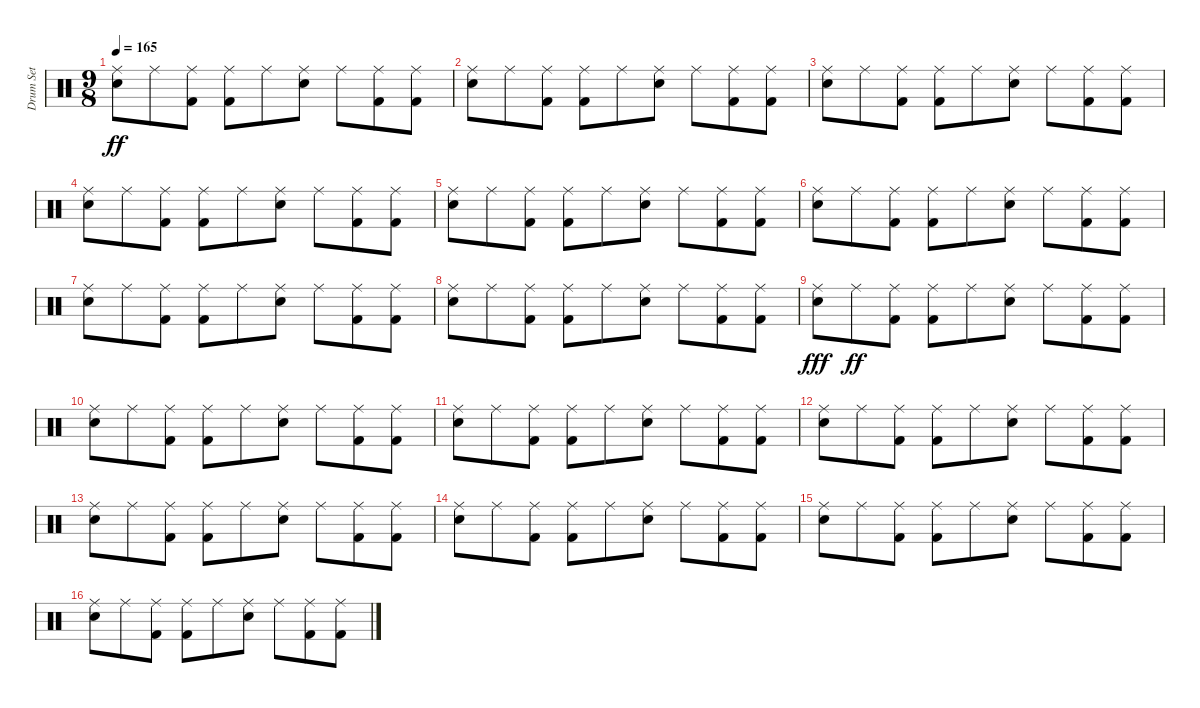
\track ("Drum Set" "Drum Set") {instrument percussion}
\staff {score}
\articulation defaults
\ts (9 8)
\tempo 165
\clef neutral
\ks c
("Snare (hit) 2" "Ride (middle)").8{dy ff} "Ride (middle)".8 ("Kick (hit) 2" "Ride (middle)").8 ("Kick (hit) 2" "Ride (middle)").8 "Ride (middle)".8 ("Snare (hit) 2" "Ride (middle)").8 "Ride (middle)".8 ("Kick (hit) 2" "Ride (middle)").8 ("Kick (hit) 2" "Ride (middle)").8 |
("Snare (hit) 2" "Ride (middle)").8 "Ride (middle)".8 ("Kick (hit) 2" "Ride (middle)").8 ("Kick (hit) 2" "Ride (middle)").8 "Ride (middle)".8 ("Snare (hit) 2" "Ride (middle)").8 "Ride (middle)".8 ("Kick (hit) 2" "Ride (middle)").8 ("Kick (hit) 2" "Ride (middle)").8 |
("Snare (hit) 2" "Ride (middle)").8 "Ride (middle)".8 ("Kick (hit) 2" "Ride (middle)").8 ("Kick (hit) 2" "Ride (middle)").8 "Ride (middle)".8 ("Snare (hit) 2" "Ride (middle)").8 "Ride (middle)".8 ("Kick (hit) 2" "Ride (middle)").8 ("Kick (hit) 2" "Ride (middle)").8 |
("Snare (hit) 2" "Ride (middle)").8 "Ride (middle)".8 ("Kick (hit) 2" "Ride (middle)").8 ("Kick (hit) 2" "Ride (middle)").8 "Ride (middle)".8 ("Snare (hit) 2" "Ride (middle)").8 "Ride (middle)".8 ("Kick (hit) 2" "Ride (middle)").8 ("Kick (hit) 2" "Ride (middle)").8 |
("Snare (hit) 2" "Ride (middle)").8 "Ride (middle)".8 ("Kick (hit) 2" "Ride (middle)").8 ("Kick (hit) 2" "Ride (middle)").8 "Ride (middle)".8 ("Snare (hit) 2" "Ride (middle)").8 "Ride (middle)".8 ("Kick (hit) 2" "Ride (middle)").8 ("Kick (hit) 2" "Ride (middle)").8 |
("Snare (hit) 2" "Ride (middle)").8 "Ride (middle)".8 ("Kick (hit) 2" "Ride (middle)").8 ("Kick (hit) 2" "Ride (middle)").8 "Ride (middle)".8 ("Snare (hit) 2" "Ride (middle)").8 "Ride (middle)".8 ("Kick (hit) 2" "Ride (middle)").8 ("Kick (hit) 2" "Ride (middle)").8 |
("Snare (hit) 2" "Ride (middle)").8 "Ride (middle)".8 ("Kick (hit) 2" "Ride (middle)").8 ("Kick (hit) 2" "Ride (middle)").8 "Ride (middle)".8 ("Snare (hit) 2" "Ride (middle)").8 "Ride (middle)".8 ("Kick (hit) 2" "Ride (middle)").8 ("Kick (hit) 2" "Ride (middle)").8 |
("Snare (hit) 2" "Ride (middle)").8 "Ride (middle)".8 ("Kick (hit) 2" "Ride (middle)").8 ("Kick (hit) 2" "Ride (middle)").8 "Ride (middle)".8 ("Snare (hit) 2" "Ride (middle)").8 "Ride (middle)".8 ("Kick (hit) 2" "Ride (middle)").8 ("Kick (hit) 2" "Ride (middle)").8 |
("Snare (hit) 2" "Ride (middle)").8{dy fff} "Ride (middle)".8{dy ff} ("Kick (hit) 2" "Ride (middle)").8 ("Kick (hit) 2" "Ride (middle)").8 "Ride (middle)".8 ("Snare (hit) 2" "Ride (middle)").8 "Ride (middle)".8 ("Kick (hit) 2" "Ride (middle)").8 ("Kick (hit) 2" "Ride (middle)").8 |
("Snare (hit) 2" "Ride (middle)").8 "Ride (middle)".8 ("Kick (hit) 2" "Ride (middle)").8 ("Kick (hit) 2" "Ride (middle)").8 "Ride (middle)".8 ("Snare (hit) 2" "Ride (middle)").8 "Ride (middle)".8 ("Kick (hit) 2" "Ride (middle)").8 ("Kick (hit) 2" "Ride (middle)").8 |
("Snare (hit) 2" "Ride (middle)").8 "Ride (middle)".8 ("Kick (hit) 2" "Ride (middle)").8 ("Kick (hit) 2" "Ride (middle)").8 "Ride (middle)".8 ("Snare (hit) 2" "Ride (middle)").8 "Ride (middle)".8 ("Kick (hit) 2" "Ride (middle)").8 ("Kick (hit) 2" "Ride (middle)").8 |
("Snare (hit) 2" "Ride (middle)").8 "Ride (middle)".8 ("Kick (hit) 2" "Ride (middle)").8 ("Kick (hit) 2" "Ride (middle)").8 "Ride (middle)".8 ("Snare (hit) 2" "Ride (middle)").8 "Ride (middle)".8 ("Kick (hit) 2" "Ride (middle)").8 ("Kick (hit) 2" "Ride (middle)").8 |
("Snare (hit) 2" "Ride (middle)").8 "Ride (middle)".8 ("Kick (hit) 2" "Ride (middle)").8 ("Kick (hit) 2" "Ride (middle)").8 "Ride (middle)".8 ("Snare (hit) 2" "Ride (middle)").8 "Ride (middle)".8 ("Kick (hit) 2" "Ride (middle)").8 ("Kick (hit) 2" "Ride (middle)").8 |
("Snare (hit) 2" "Ride (middle)").8 "Ride (middle)".8 ("Kick (hit) 2" "Ride (middle)").8 ("Kick (hit) 2" "Ride (middle)").8 "Ride (middle)".8 ("Snare (hit) 2" "Ride (middle)").8 "Ride (middle)".8 ("Kick (hit) 2" "Ride (middle)").8 ("Kick (hit) 2" "Ride (middle)").8 |
("Snare (hit) 2" "Ride (middle)").8 "Ride (middle)".8 ("Kick (hit) 2" "Ride (middle)").8 ("Kick (hit) 2" "Ride (middle)").8 "Ride (middle)".8 ("Snare (hit) 2" "Ride (middle)").8 "Ride (middle)".8 ("Kick (hit) 2" "Ride (middle)").8 ("Kick (hit) 2" "Ride (middle)").8 |
("Snare (hit) 2" "Ride (middle)").8 "Ride (middle)".8 ("Kick (hit) 2" "Ride (middle)").8 ("Kick (hit) 2" "Ride (middle)").8 "Ride (middle)".8 ("Snare (hit) 2" "Ride (middle)").8 "Ride (middle)".8 ("Kick (hit) 2" "Ride (middle)").8 ("Kick (hit) 2" "Ride (middle)").8
